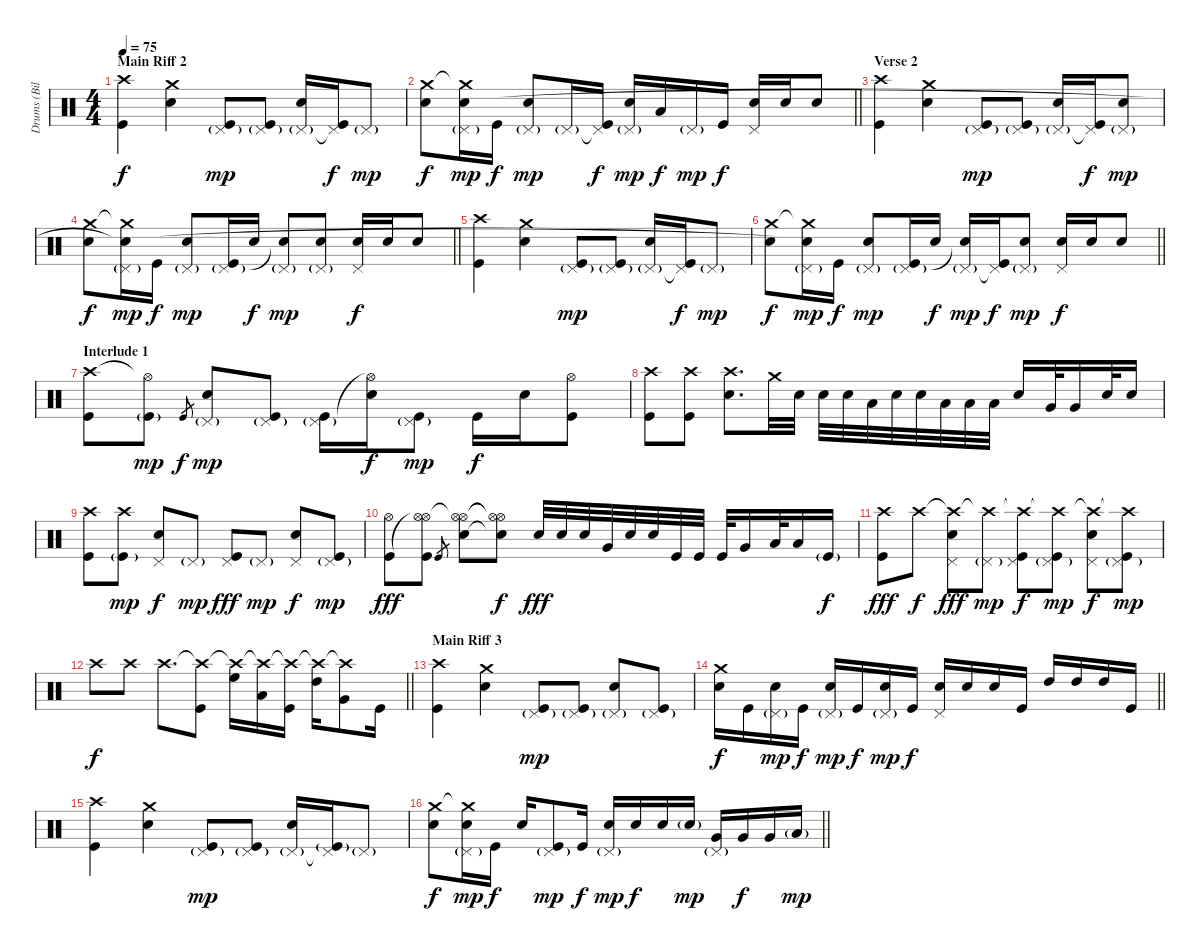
\track ("Drums (Bill Ward)" "Drums (Bil") {instrument percussion}
\staff {score}
\articulation defaults
\ts (4 4)
\section ("" "Main Riff 2")
\tempo 75
\clef neutral
\ks c
("Crash high (hit)" "Kick (hit)").4{dy f} ("Crash medium (hit)" "Electric Snare (hit)").4 ("Pedal Hi-Hat (hit)"{g} "Kick (hit)").8{dy mp} ("Pedal Hi-Hat (hit)"{g} "Kick (hit)").8 ("Pedal Hi-Hat (hit)"{g} "Electric Snare (hit)").16 ("Pedal Hi-Hat (hit)"{t} "Kick (hit)").16{dy f} "Pedal Hi-Hat (hit)"{g}.8{dy mp} |
\barLineRight lightlight
("Crash medium (hit)" "Electric Snare (hit)").8{dy f} ("Crash medium (hit)"{t} "Pedal Hi-Hat (hit)"{g} "Electric Snare (hit)").16{dy mp} "Kick (hit)".16{dy f} ("Pedal Hi-Hat (hit)"{g} "Electric Snare (hit)").8{dy mp} "Pedal Hi-Hat (hit)"{g}.16 ("Pedal Hi-Hat (hit)"{t} "Kick (hit)").16{dy f} ("Pedal Hi-Hat (hit)"{g} "Electric Snare (hit)").16{dy mp} "Low Tom (hit)".16{dy f} "Pedal Hi-Hat (hit)"{g}.16{dy mp} "Kick (hit)".16{dy f} ("Pedal Hi-Hat (hit)" "Electric Snare (hit)").16 "Electric Snare (hit)".16 "Electric Snare (hit)".8 |
\section ("" "Verse 2")
("Crash high (hit)" "Kick (hit)").4 ("Crash medium (hit)" "Electric Snare (hit)").4 ("Pedal Hi-Hat (hit)"{g} "Kick (hit)").8{dy mp} ("Pedal Hi-Hat (hit)"{g} "Kick (hit)").8 ("Pedal Hi-Hat (hit)"{g} "Electric Snare (hit)").16 ("Pedal Hi-Hat (hit)"{t} "Kick (hit)").16{dy f} ("Pedal Hi-Hat (hit)"{g} "Electric Snare (hit)").8{dy mp} |
\barLineRight lightlight
("Crash medium (hit)" "Electric Snare (hit)").8{dy f} ("Crash medium (hit)"{t} "Pedal Hi-Hat (hit)"{g} "Electric Snare (hit)"{t}).16{dy mp} "Kick (hit)".16{dy f} ("Pedal Hi-Hat (hit)"{g} "Electric Snare (hit)").8{dy mp} ("Pedal Hi-Hat (hit)"{g} "Kick (hit)").16 "Electric Snare (hit)".16{dy f} ("Pedal Hi-Hat (hit)"{g} "Electric Snare (hit)"{t}).8{dy mp} ("Pedal Hi-Hat (hit)"{g} "Electric Snare (hit)").8 ("Pedal Hi-Hat (hit)" "Electric Snare (hit)").16{dy f} "Electric Snare (hit)".16 "Electric Snare (hit)".8 |
("Crash high (hit)" "Kick (hit)").4 ("Crash medium (hit)" "Electric Snare (hit)").4 ("Pedal Hi-Hat (hit)"{g} "Kick (hit)").8{dy mp} ("Pedal Hi-Hat (hit)"{g} "Kick (hit)").8 ("Pedal Hi-Hat (hit)"{g} "Electric Snare (hit)").16 ("Pedal Hi-Hat (hit)"{t} "Kick (hit)").16{dy f} "Pedal Hi-Hat (hit)"{g}.8{dy mp} |
\barLineRight lightlight
("Crash medium (hit)" "Electric Snare (hit)").8{dy f} ("Crash medium (hit)"{t} "Pedal Hi-Hat (hit)"{g} "Electric Snare (hit)"{t}).16{dy mp} "Kick (hit)".16{dy f} ("Pedal Hi-Hat (hit)"{g} "Electric Snare (hit)").8{dy mp} ("Pedal Hi-Hat (hit)"{g} "Kick (hit)").16 "Electric Snare (hit)".16{dy f} ("Pedal Hi-Hat (hit)"{g} "Electric Snare (hit)"{t}).16{dy mp} ("Pedal Hi-Hat (hit)"{t} "Kick (hit)").16{dy f} ("Pedal Hi-Hat (hit)"{g} "Electric Snare (hit)").8{dy mp} ("Pedal Hi-Hat (hit)" "Electric Snare (hit)").16{dy f} "Electric Snare (hit)".16 "Electric Snare (hit)".8 |
\section ("" "Interlude 1")
("Crash high (hit)" "Kick (hit)").8 ("Hi-Hat (open)"{t} "Kick (hit)"{g}).8{dy mp} "Kick (hit)".8{gr dy f} ("Pedal Hi-Hat (hit)"{g} "Electric Snare (hit)").8{dy mp} ("Pedal Hi-Hat (hit)"{g} "Kick (hit)").8 ("Pedal Hi-Hat (hit)"{g} "Kick (hit)").16 ("Hi-Hat (open)"{t} "Electric Snare (hit)").16{dy f} ("Pedal Hi-Hat (hit)"{g} "Kick (hit)").8{dy mp} "Kick (hit)".16{dy f} "Electric Snare (hit)".16 ("Hi-Hat (open)" "Kick (hit)").8 |
("Crash high (hit)" "Kick (hit)").8 ("Crash high (hit)" "Kick (hit)").8 ("Crash high (hit)" "Electric Snare (hit)").8{d} "Crash medium (hit)".32 "Electric Snare (hit)".32 "Electric Snare (hit)".32 "Electric Snare (hit)".32 "Low Tom (hit)".32 "Electric Snare (hit)".32 "Electric Snare (hit)".32 "Low Tom (hit)".32 "Low Tom (hit)".32 "Low Tom (hit)".32 "Electric Snare (hit)".16 "Very Low Tom (hit)".32 "Very Low Tom (hit)".16 "Electric Snare (hit)".32 "Electric Snare (hit)".16 |
("Crash high (hit)" "Kick (hit)").8 ("Crash high (hit)" "Kick (hit)"{g}).8{dy mp} ("Pedal Hi-Hat (hit)" "Electric Snare (hit)").8{dy f} "Pedal Hi-Hat (hit)"{g}.8{dy mp} ("Pedal Hi-Hat (hit)" "Kick (hit)").8{dy fff} "Pedal Hi-Hat (hit)"{g}.8{dy mp} ("Pedal Hi-Hat (hit)" "Electric Snare (hit)").8{dy f} ("Pedal Hi-Hat (hit)"{g} "Kick (hit)").8{dy mp} |
("Hi-Hat (open)" "Kick (hit)").8{dy fff} ("Hi-Hat (open)" "Hi-Hat (open)"{t} "Kick (hit)").8 "Kick (hit)".8{gr} ("Hi-Hat (open)" "Hi-Hat (open)"{t} "Electric Snare (hit)").8 ("Hi-Hat (open)"{t} "Hi-Hat (open)"{t} "Electric Snare (hit)"{t}).8{dy f} "Electric Snare (hit)".32{dy fff} "Electric Snare (hit)".32 "Electric Snare (hit)".32 "Very Low Tom (hit)".32 "Electric Snare (hit)".32 "Electric Snare (hit)".32 "Kick (hit)".32 "Kick (hit)".32 "Kick (hit)".32 "Very Low Tom (hit)".16 "Low Floor Tom (hit)".32 "Low Floor Tom (hit)".16 "Kick (hit)"{g}.16{dy f} |
("Crash high (hit)" "Kick (hit)").8{dy fff} "Crash high (hit)".8{dy f} ("Crash high (hit)"{t} "Pedal Hi-Hat (hit)" "Electric Snare (hit)").8{dy fff} ("Crash high (hit)"{t} "Pedal Hi-Hat (hit)"{g}).8{dy mp} ("Crash high (hit)"{t} "Pedal Hi-Hat (hit)" "Kick (hit)").8{dy f} ("Crash high (hit)"{t} "Pedal Hi-Hat (hit)"{g} "Kick (hit)").8{dy mp} ("Crash high (hit)"{t} "Pedal Hi-Hat (hit)" "Electric Snare (hit)").8{dy f} ("Crash high (hit)"{t} "Pedal Hi-Hat (hit)"{g} "Kick (hit)").8{dy mp} |
\barLineRight lightlight "Crash high (hit)".8{dy f} "Crash high (hit)".8 "Crash high (hit)".8{d}
("Crash high (hit)"{t} "Kick (hit)").8 ("Crash high (hit)"{t} "High Floor Tom (hit)").16 ("Crash high (hit)"{t} "Low Tom (hit)").16 ("Crash high (hit)"{t} "Kick (hit)").16 ("Crash high (hit)"{t} "High Tom (hit)").16 ("Crash high (hit)"{t} "Very Low Tom (hit)").8 "Kick (hit)".16 |
\section ("" "Main Riff 3")
("Crash high (hit)" "Kick (hit)").4 ("Crash medium (hit)" "Electric Snare (hit)").4 ("Pedal Hi-Hat (hit)"{g} "Kick (hit)").8{dy mp} ("Pedal Hi-Hat (hit)"{g} "Kick (hit)").8 ("Pedal Hi-Hat (hit)"{g} "Electric Snare (hit)").8 ("Pedal Hi-Hat (hit)"{g} "Kick (hit)").8 |
\barLineRight lightlight
("Crash medium (hit)" "Electric Snare (hit)").16{dy f} "Kick (hit)".16 ("Pedal Hi-Hat (hit)"{g} "Electric Snare (hit)").16{dy mp} "Kick (hit)".16{dy f} ("Pedal Hi-Hat (hit)"{g} "Electric Snare (hit)").16{dy mp} "Kick (hit)".16{dy f} ("Pedal Hi-Hat (hit)"{g} "Electric Snare (hit)").16{dy mp} "Kick (hit)".16{dy f} ("Pedal Hi-Hat (hit)" "Electric Snare (hit)").16 "Electric Snare (hit)".16 "Electric Snare (hit)".16 "Kick (hit)".16 "High Tom (hit)".16 "High Tom (hit)".16 "High Tom (hit)".16 "Kick (hit)".16 |
("Crash high (hit)" "Kick (hit)").4 ("Crash medium (hit)" "Electric Snare (hit)").4 ("Pedal Hi-Hat (hit)"{g} "Kick (hit)").8{dy mp} ("Pedal Hi-Hat (hit)"{g} "Kick (hit)").8 ("Pedal Hi-Hat (hit)"{g} "Electric Snare (hit)").16 ("Pedal Hi-Hat (hit)"{t} "Kick (hit)"{g}).16 "Pedal Hi-Hat (hit)"{g}.8 |
\barLineRight lightlight
("Crash medium (hit)" "Electric Snare (hit)").8{dy f} ("Crash medium (hit)"{t} "Pedal Hi-Hat (hit)"{g} "Electric Snare (hit)").16{dy mp} "Kick (hit)".16{dy f} "Electric Snare (hit)".16 ("Pedal Hi-Hat (hit)"{g} "Kick (hit)").8{dy mp} "Kick (hit)".16{dy f} ("Pedal Hi-Hat (hit)"{g} "Electric Snare (hit)").16{dy mp} "Electric Snare (hit)".16{dy f} "Electric Snare (hit)".16 "Electric Snare (hit)"{g}.16{dy mp} ("Pedal Hi-Hat (hit)"{g} "Very Low Tom (hit)").16 "Very Low Tom (hit)".16{dy f} "Very Low Tom (hit)".16 "Low Floor Tom (hit)"{g}.16{dy mp}
